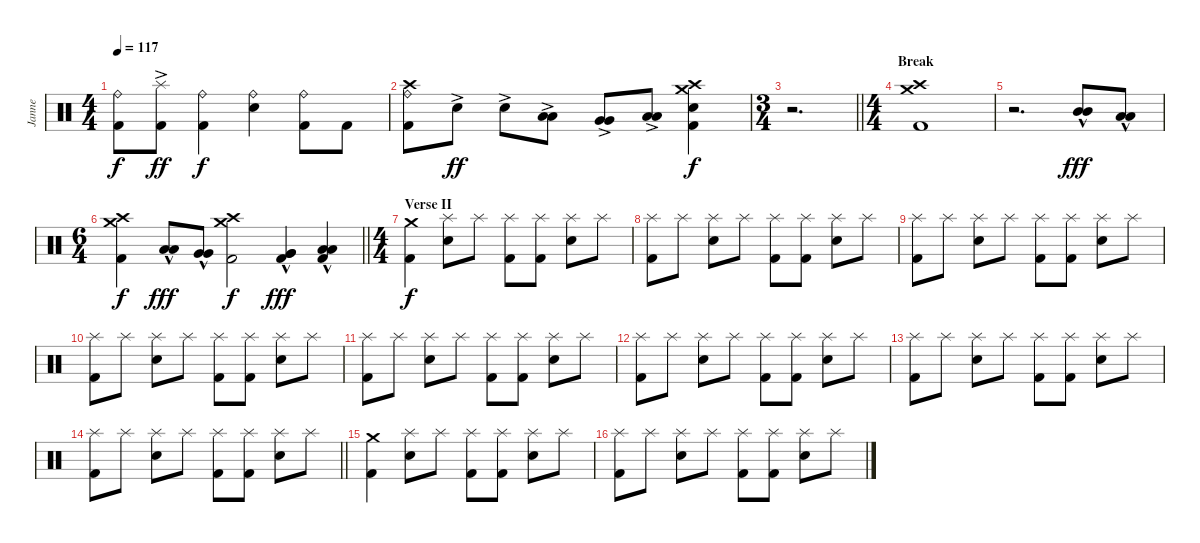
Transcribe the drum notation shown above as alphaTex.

\track ("Janne" "Janne") {instrument percussion}
\staff {score}
\articulation defaults
\ts (4 4)
\tempo 117
\clef neutral
\ks c
("Kick (hit) 2" "Ride (bell)").8{dy f} ("Kick (hit) 2" "Splash (hit)"{ac}).8{dy ff} ("Kick (hit) 2" "Ride (bell)").4{dy f} ("Snare (hit) 2" "Ride (bell)").4 ("Kick (hit) 2" "Ride (bell)").8 "Kick (hit) 2".8 |
("Kick (hit) 2" "Ride (bell)" "Crash high (hit)").8 "Snare (hit) 2"{ac}.8{dy ff} "Snare (hit) 2"{ac}.8 ("Low Tom (hit)"{ac} "Low Tom (hit)"{ac}).8 ("Very Low Tom (hit)"{ac} "Very Low Tom (hit)"{ac}).8 ("Low Floor Tom (hit)"{ac} "Low Floor Tom (hit)"{ac}).8 ("Kick (hit) 2" "Snare (hit) 2" "Crash high (hit)" "Crash medium (hit)").4{dy f} |
\ts (3 4)
\barLineRight lightlight
r.2{d} |
\ts (4 4)
\section ("" "Break")
("Kick (hit) 2" "Crash high (hit)" "Crash medium (hit)").1 |
r.2{d} ("Mid Tom (hit)"{hac} "Mid Tom (hit)"{hac}).8{dy fff} ("Low Tom (hit)"{hac} "Low Tom (hit)"{hac}).8 |
\ts (6 4)
\barLineRight lightlight
("Kick (hit) 2" "Crash high (hit)" "Crash medium (hit)").4{dy f} ("Low Tom (hit)"{hac} "Low Tom (hit)"{hac}).8{dy fff} ("Very Low Tom (hit)"{hac} "Very Low Tom (hit)"{hac}).8 ("Kick (hit) 2" "Crash high (hit)" "Crash medium (hit)").2{dy f} ("Kick (hit) 2" "Very Low Tom (hit)"{hac} "Very Low Tom (hit)"{hac}).4{dy fff} ("Kick (hit) 2" "Low Floor Tom (hit)"{hac} "Low Floor Tom (hit)"{hac}).4 |
\ts (4 4)
\section ("" "Verse II")
("Kick (hit) 2" "Crash medium (hit)").4{dy f} ("Snare (hit) 2" "Splash (hit)").8 "Splash (hit)".8 ("Kick (hit) 2" "Splash (hit)").8 ("Kick (hit) 2" "Splash (hit)").8 ("Snare (hit) 2" "Splash (hit)").8 "Splash (hit)".8 |
("Kick (hit) 2" "Splash (hit)").8 "Splash (hit)".8 ("Snare (hit) 2" "Splash (hit)").8 "Splash (hit)".8 ("Kick (hit) 2" "Splash (hit)").8 ("Kick (hit) 2" "Splash (hit)").8 ("Snare (hit) 2" "Splash (hit)").8 "Splash (hit)".8 |
("Kick (hit) 2" "Splash (hit)").8 "Splash (hit)".8 ("Snare (hit) 2" "Splash (hit)").8 "Splash (hit)".8 ("Kick (hit) 2" "Splash (hit)").8 ("Kick (hit) 2" "Splash (hit)").8 ("Snare (hit) 2" "Splash (hit)").8 "Splash (hit)".8 |
("Kick (hit) 2" "Splash (hit)").8 "Splash (hit)".8 ("Snare (hit) 2" "Splash (hit)").8 "Splash (hit)".8 ("Kick (hit) 2" "Splash (hit)").8 ("Kick (hit) 2" "Splash (hit)").8 ("Snare (hit) 2" "Splash (hit)").8 "Splash (hit)".8 |
("Kick (hit) 2" "Splash (hit)").8 "Splash (hit)".8 ("Snare (hit) 2" "Splash (hit)").8 "Splash (hit)".8 ("Kick (hit) 2" "Splash (hit)").8 ("Kick (hit) 2" "Splash (hit)").8 ("Snare (hit) 2" "Splash (hit)").8 "Splash (hit)".8 |
("Kick (hit) 2" "Splash (hit)").8 "Splash (hit)".8 ("Snare (hit) 2" "Splash (hit)").8 "Splash (hit)".8 ("Kick (hit) 2" "Splash (hit)").8 ("Kick (hit) 2" "Splash (hit)").8 ("Snare (hit) 2" "Splash (hit)").8 "Splash (hit)".8 |
("Kick (hit) 2" "Splash (hit)").8 "Splash (hit)".8 ("Snare (hit) 2" "Splash (hit)").8 "Splash (hit)".8 ("Kick (hit) 2" "Splash (hit)").8 ("Kick (hit) 2" "Splash (hit)").8 ("Snare (hit) 2" "Splash (hit)").8 "Splash (hit)".8 |
\barLineRight lightlight
("Kick (hit) 2" "Splash (hit)").8 "Splash (hit)".8 ("Snare (hit) 2" "Splash (hit)").8 "Splash (hit)".8 ("Kick (hit) 2" "Splash (hit)").8 ("Kick (hit) 2" "Splash (hit)").8 ("Snare (hit) 2" "Splash (hit)").8 "Splash (hit)".8 |
\section ("" "")
("Kick (hit) 2" "Crash medium (hit)").4 ("Snare (hit) 2" "Splash (hit)").8 "Splash (hit)".8 ("Kick (hit) 2" "Splash (hit)").8 ("Kick (hit) 2" "Splash (hit)").8 ("Snare (hit) 2" "Splash (hit)").8 "Splash (hit)".8 |
("Kick (hit) 2" "Splash (hit)").8 "Splash (hit)".8 ("Snare (hit) 2" "Splash (hit)").8 "Splash (hit)".8 ("Kick (hit) 2" "Splash (hit)").8 ("Kick (hit) 2" "Splash (hit)").8 ("Snare (hit) 2" "Splash (hit)").8 "Splash (hit)".8
